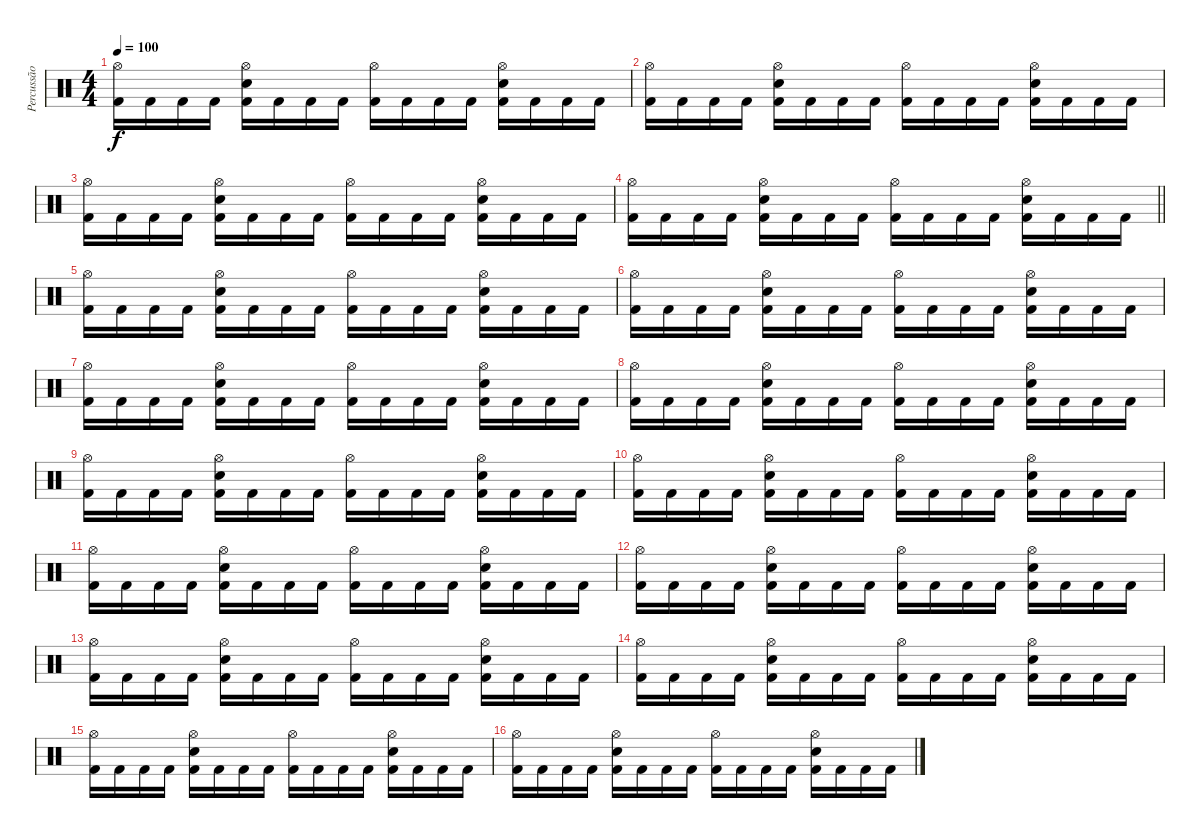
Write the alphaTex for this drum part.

\track ("Percussão" "Percussão") {instrument percussion}
\staff {score}
\articulation defaults
\ts (4 4)
\tempo 100
\clef neutral
\ks c
("Hi-Hat (open)" "Kick (hit) 2").16{dy f} "Kick (hit) 2".16 "Kick (hit) 2".16 "Kick (hit) 2".16 ("Hi-Hat (open)" "Electric Snare (hit)" "Kick (hit) 2").16 "Kick (hit) 2".16 "Kick (hit) 2".16 "Kick (hit) 2".16 ("Hi-Hat (open)" "Kick (hit) 2").16 "Kick (hit) 2".16 "Kick (hit) 2".16 "Kick (hit) 2".16 ("Hi-Hat (open)" "Electric Snare (hit)" "Kick (hit) 2").16 "Kick (hit) 2".16 "Kick (hit) 2".16 "Kick (hit) 2".16 |
("Hi-Hat (open)" "Kick (hit) 2").16 "Kick (hit) 2".16 "Kick (hit) 2".16 "Kick (hit) 2".16 ("Hi-Hat (open)" "Electric Snare (hit)" "Kick (hit) 2").16 "Kick (hit) 2".16 "Kick (hit) 2".16 "Kick (hit) 2".16 ("Hi-Hat (open)" "Kick (hit) 2").16 "Kick (hit) 2".16 "Kick (hit) 2".16 "Kick (hit) 2".16 ("Hi-Hat (open)" "Electric Snare (hit)" "Kick (hit) 2").16 "Kick (hit) 2".16 "Kick (hit) 2".16 "Kick (hit) 2".16 |
("Hi-Hat (open)" "Kick (hit) 2").16 "Kick (hit) 2".16 "Kick (hit) 2".16 "Kick (hit) 2".16 ("Hi-Hat (open)" "Electric Snare (hit)" "Kick (hit) 2").16 "Kick (hit) 2".16 "Kick (hit) 2".16 "Kick (hit) 2".16 ("Hi-Hat (open)" "Kick (hit) 2").16 "Kick (hit) 2".16 "Kick (hit) 2".16 "Kick (hit) 2".16 ("Hi-Hat (open)" "Electric Snare (hit)" "Kick (hit) 2").16 "Kick (hit) 2".16 "Kick (hit) 2".16 "Kick (hit) 2".16 |
\barLineRight lightlight
("Hi-Hat (open)" "Kick (hit) 2").16 "Kick (hit) 2".16 "Kick (hit) 2".16 "Kick (hit) 2".16 ("Hi-Hat (open)" "Electric Snare (hit)" "Kick (hit) 2").16 "Kick (hit) 2".16 "Kick (hit) 2".16 "Kick (hit) 2".16 ("Hi-Hat (open)" "Kick (hit) 2").16 "Kick (hit) 2".16 "Kick (hit) 2".16 "Kick (hit) 2".16 ("Hi-Hat (open)" "Electric Snare (hit)" "Kick (hit) 2").16 "Kick (hit) 2".16 "Kick (hit) 2".16 "Kick (hit) 2".16 |
("Hi-Hat (open)" "Kick (hit) 2").16 "Kick (hit) 2".16 "Kick (hit) 2".16 "Kick (hit) 2".16 ("Hi-Hat (open)" "Electric Snare (hit)" "Kick (hit) 2").16 "Kick (hit) 2".16 "Kick (hit) 2".16 "Kick (hit) 2".16 ("Hi-Hat (open)" "Kick (hit) 2").16 "Kick (hit) 2".16 "Kick (hit) 2".16 "Kick (hit) 2".16 ("Hi-Hat (open)" "Electric Snare (hit)" "Kick (hit) 2").16 "Kick (hit) 2".16 "Kick (hit) 2".16 "Kick (hit) 2".16 |
("Hi-Hat (open)" "Kick (hit) 2").16 "Kick (hit) 2".16 "Kick (hit) 2".16 "Kick (hit) 2".16 ("Hi-Hat (open)" "Electric Snare (hit)" "Kick (hit) 2").16 "Kick (hit) 2".16 "Kick (hit) 2".16 "Kick (hit) 2".16 ("Hi-Hat (open)" "Kick (hit) 2").16 "Kick (hit) 2".16 "Kick (hit) 2".16 "Kick (hit) 2".16 ("Hi-Hat (open)" "Electric Snare (hit)" "Kick (hit) 2").16 "Kick (hit) 2".16 "Kick (hit) 2".16 "Kick (hit) 2".16 |
("Hi-Hat (open)" "Kick (hit) 2").16 "Kick (hit) 2".16 "Kick (hit) 2".16 "Kick (hit) 2".16 ("Hi-Hat (open)" "Electric Snare (hit)" "Kick (hit) 2").16 "Kick (hit) 2".16 "Kick (hit) 2".16 "Kick (hit) 2".16 ("Hi-Hat (open)" "Kick (hit) 2").16 "Kick (hit) 2".16 "Kick (hit) 2".16 "Kick (hit) 2".16 ("Hi-Hat (open)" "Electric Snare (hit)" "Kick (hit) 2").16 "Kick (hit) 2".16 "Kick (hit) 2".16 "Kick (hit) 2".16 |
("Hi-Hat (open)" "Kick (hit) 2").16 "Kick (hit) 2".16 "Kick (hit) 2".16 "Kick (hit) 2".16 ("Hi-Hat (open)" "Electric Snare (hit)" "Kick (hit) 2").16 "Kick (hit) 2".16 "Kick (hit) 2".16 "Kick (hit) 2".16 ("Hi-Hat (open)" "Kick (hit) 2").16 "Kick (hit) 2".16 "Kick (hit) 2".16 "Kick (hit) 2".16 ("Hi-Hat (open)" "Electric Snare (hit)" "Kick (hit) 2").16 "Kick (hit) 2".16 "Kick (hit) 2".16 "Kick (hit) 2".16 |
("Hi-Hat (open)" "Kick (hit) 2").16 "Kick (hit) 2".16 "Kick (hit) 2".16 "Kick (hit) 2".16 ("Hi-Hat (open)" "Electric Snare (hit)" "Kick (hit) 2").16 "Kick (hit) 2".16 "Kick (hit) 2".16 "Kick (hit) 2".16 ("Hi-Hat (open)" "Kick (hit) 2").16 "Kick (hit) 2".16 "Kick (hit) 2".16 "Kick (hit) 2".16 ("Hi-Hat (open)" "Electric Snare (hit)" "Kick (hit) 2").16 "Kick (hit) 2".16 "Kick (hit) 2".16 "Kick (hit) 2".16 |
("Hi-Hat (open)" "Kick (hit) 2").16 "Kick (hit) 2".16 "Kick (hit) 2".16 "Kick (hit) 2".16 ("Hi-Hat (open)" "Electric Snare (hit)" "Kick (hit) 2").16 "Kick (hit) 2".16 "Kick (hit) 2".16 "Kick (hit) 2".16 ("Hi-Hat (open)" "Kick (hit) 2").16 "Kick (hit) 2".16 "Kick (hit) 2".16 "Kick (hit) 2".16 ("Hi-Hat (open)" "Electric Snare (hit)" "Kick (hit) 2").16 "Kick (hit) 2".16 "Kick (hit) 2".16 "Kick (hit) 2".16 |
("Hi-Hat (open)" "Kick (hit) 2").16 "Kick (hit) 2".16 "Kick (hit) 2".16 "Kick (hit) 2".16 ("Hi-Hat (open)" "Electric Snare (hit)" "Kick (hit) 2").16 "Kick (hit) 2".16 "Kick (hit) 2".16 "Kick (hit) 2".16 ("Hi-Hat (open)" "Kick (hit) 2").16 "Kick (hit) 2".16 "Kick (hit) 2".16 "Kick (hit) 2".16 ("Hi-Hat (open)" "Electric Snare (hit)" "Kick (hit) 2").16 "Kick (hit) 2".16 "Kick (hit) 2".16 "Kick (hit) 2".16 |
("Hi-Hat (open)" "Kick (hit) 2").16 "Kick (hit) 2".16 "Kick (hit) 2".16 "Kick (hit) 2".16 ("Hi-Hat (open)" "Electric Snare (hit)" "Kick (hit) 2").16 "Kick (hit) 2".16 "Kick (hit) 2".16 "Kick (hit) 2".16 ("Hi-Hat (open)" "Kick (hit) 2").16 "Kick (hit) 2".16 "Kick (hit) 2".16 "Kick (hit) 2".16 ("Hi-Hat (open)" "Electric Snare (hit)" "Kick (hit) 2").16 "Kick (hit) 2".16 "Kick (hit) 2".16 "Kick (hit) 2".16 |
("Hi-Hat (open)" "Kick (hit) 2").16 "Kick (hit) 2".16 "Kick (hit) 2".16 "Kick (hit) 2".16 ("Hi-Hat (open)" "Electric Snare (hit)" "Kick (hit) 2").16 "Kick (hit) 2".16 "Kick (hit) 2".16 "Kick (hit) 2".16 ("Hi-Hat (open)" "Kick (hit) 2").16 "Kick (hit) 2".16 "Kick (hit) 2".16 "Kick (hit) 2".16 ("Hi-Hat (open)" "Electric Snare (hit)" "Kick (hit) 2").16 "Kick (hit) 2".16 "Kick (hit) 2".16 "Kick (hit) 2".16 |
("Hi-Hat (open)" "Kick (hit) 2").16 "Kick (hit) 2".16 "Kick (hit) 2".16 "Kick (hit) 2".16 ("Hi-Hat (open)" "Electric Snare (hit)" "Kick (hit) 2").16 "Kick (hit) 2".16 "Kick (hit) 2".16 "Kick (hit) 2".16 ("Hi-Hat (open)" "Kick (hit) 2").16 "Kick (hit) 2".16 "Kick (hit) 2".16 "Kick (hit) 2".16 ("Hi-Hat (open)" "Electric Snare (hit)" "Kick (hit) 2").16 "Kick (hit) 2".16 "Kick (hit) 2".16 "Kick (hit) 2".16 |
("Hi-Hat (open)" "Kick (hit) 2").16 "Kick (hit) 2".16 "Kick (hit) 2".16 "Kick (hit) 2".16 ("Hi-Hat (open)" "Electric Snare (hit)" "Kick (hit) 2").16 "Kick (hit) 2".16 "Kick (hit) 2".16 "Kick (hit) 2".16 ("Hi-Hat (open)" "Kick (hit) 2").16 "Kick (hit) 2".16 "Kick (hit) 2".16 "Kick (hit) 2".16 ("Hi-Hat (open)" "Electric Snare (hit)" "Kick (hit) 2").16 "Kick (hit) 2".16 "Kick (hit) 2".16 "Kick (hit) 2".16 |
("Hi-Hat (open)" "Kick (hit) 2").16 "Kick (hit) 2".16 "Kick (hit) 2".16 "Kick (hit) 2".16 ("Hi-Hat (open)" "Electric Snare (hit)" "Kick (hit) 2").16 "Kick (hit) 2".16 "Kick (hit) 2".16 "Kick (hit) 2".16 ("Hi-Hat (open)" "Kick (hit) 2").16 "Kick (hit) 2".16 "Kick (hit) 2".16 "Kick (hit) 2".16 ("Hi-Hat (open)" "Electric Snare (hit)" "Kick (hit) 2").16 "Kick (hit) 2".16 "Kick (hit) 2".16 "Kick (hit) 2".16
